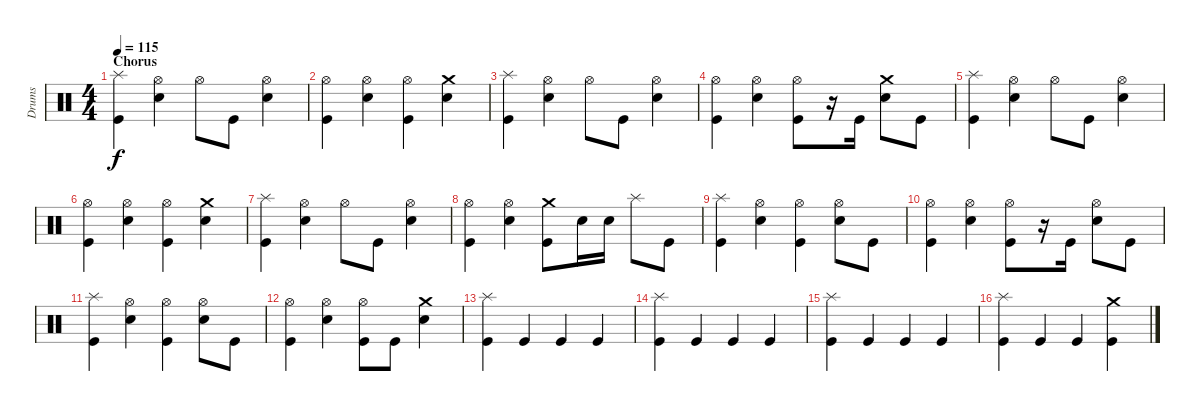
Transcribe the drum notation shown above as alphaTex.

\track ("Drums" "Drums") {instrument percussion}
\staff {score}
\articulation defaults
\ts (4 4)
\section ("" "Chorus")
\tempo 115
\clef neutral
\ks c
("Splash (hit)" "Kick (hit)").4{dy f} ("Hi-Hat (open)" "Snare (hit) 2").4 "Hi-Hat (open)".8 "Kick (hit)".8 ("Hi-Hat (open)" "Snare (hit) 2").4 |
("Hi-Hat (open)" "Kick (hit)").4 ("Hi-Hat (open)" "Snare (hit) 2").4 ("Hi-Hat (open)" "Kick (hit)").4 ("Crash medium (hit)" "Snare (hit) 2").4 |
("Splash (hit)" "Kick (hit)").4 ("Hi-Hat (open)" "Snare (hit) 2").4 "Hi-Hat (open)".8 "Kick (hit)".8 ("Hi-Hat (open)" "Snare (hit) 2").4 |
("Hi-Hat (open)" "Kick (hit)").4 ("Hi-Hat (open)" "Snare (hit) 2").4 ("Hi-Hat (open)" "Kick (hit)").8 r.16 "Kick (hit)".16 ("Crash medium (hit)" "Snare (hit) 2").8 "Kick (hit)".8 |
("Splash (hit)" "Kick (hit)").4 ("Hi-Hat (open)" "Snare (hit) 2").4 "Hi-Hat (open)".8 "Kick (hit)".8 ("Hi-Hat (open)" "Snare (hit) 2").4 |
("Hi-Hat (open)" "Kick (hit)").4 ("Hi-Hat (open)" "Snare (hit) 2").4 ("Hi-Hat (open)" "Kick (hit)").4 ("Crash medium (hit)" "Snare (hit) 2").4 |
("Splash (hit)" "Kick (hit)").4 ("Hi-Hat (open)" "Snare (hit) 2").4 "Hi-Hat (open)".8 "Kick (hit)".8 ("Hi-Hat (open)" "Snare (hit) 2").4 |
("Hi-Hat (open)" "Kick (hit)").4 ("Hi-Hat (open)" "Snare (hit) 2").4 ("Crash medium (hit)" "Kick (hit)").8 "Snare (hit) 2".16 "Snare (hit) 2".16 "Splash (hit)".8 "Kick (hit)".8 |
("Splash (hit)" "Kick (hit)").4 ("Hi-Hat (open)" "Snare (hit) 2").4 ("Hi-Hat (open)" "Kick (hit)").4 ("Hi-Hat (open)" "Snare (hit) 2").8 "Kick (hit)".8 |
("Hi-Hat (open)" "Kick (hit)").4 ("Hi-Hat (open)" "Snare (hit) 2").4 ("Hi-Hat (open)" "Kick (hit)").8 r.16 "Kick (hit)".16 ("Hi-Hat (open)" "Snare (hit) 2").8 "Kick (hit)".8 |
("Splash (hit)" "Kick (hit)").4 ("Hi-Hat (open)" "Snare (hit) 2").4 ("Hi-Hat (open)" "Kick (hit)").4 ("Hi-Hat (open)" "Snare (hit) 2").8 "Kick (hit)".8 |
("Hi-Hat (open)" "Kick (hit)").4 ("Hi-Hat (open)" "Snare (hit) 2").4 ("Hi-Hat (open)" "Kick (hit)").8 "Kick (hit)".8 ("Crash medium (hit)" "Snare (hit) 2").4 |
("Splash (hit)" "Kick (hit)").4 "Kick (hit)".4 "Kick (hit)".4 "Kick (hit)".4 |
("Splash (hit)" "Kick (hit)").4 "Kick (hit)".4 "Kick (hit)".4 "Kick (hit)".4 |
("Splash (hit)" "Kick (hit)").4 "Kick (hit)".4 "Kick (hit)".4 "Kick (hit)".4 |
("Splash (hit)" "Kick (hit)").4 "Kick (hit)".4 "Kick (hit)".4 ("Crash medium (hit)" "Kick (hit)").4
